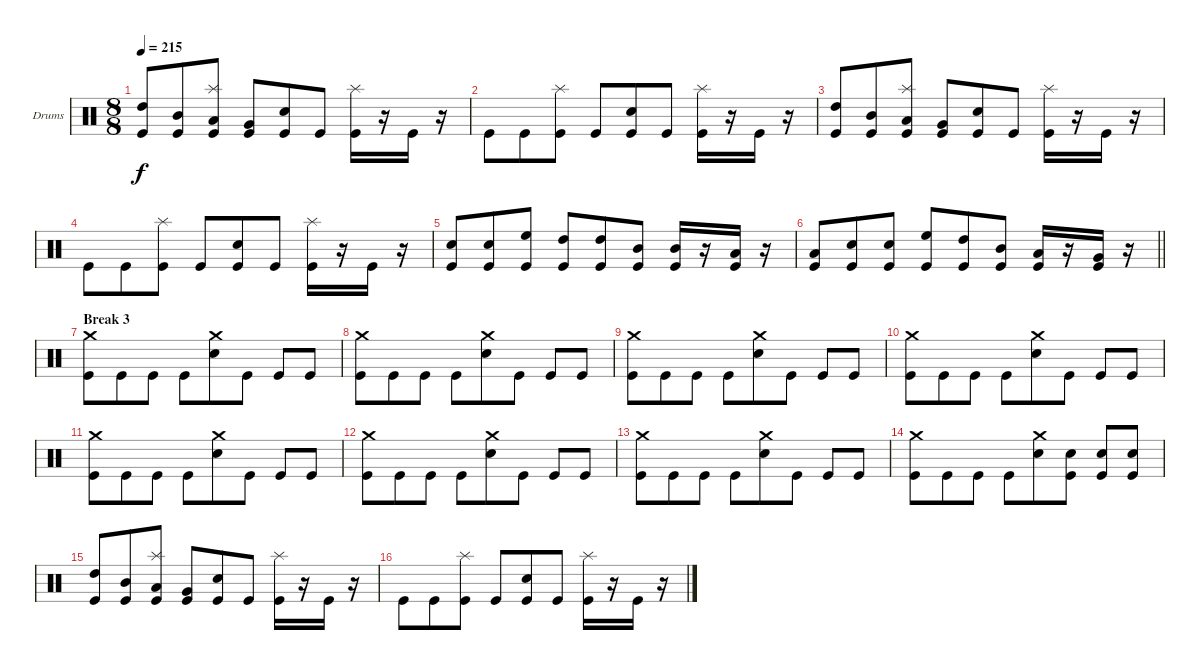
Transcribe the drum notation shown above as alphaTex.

\bracketExtendMode groupsimilarinstruments
\firstSystemTrackNameOrientation horizontal
\otherSystemsTrackNameOrientation horizontal
\track ("Dave McClain" "Drums") {instrument percussion}
\staff {score}
\articulation defaults
\ts (8 8)
\tempo 215
\clef neutral
\ks c
("High Tom (hit)" "Kick (hit)").8{dy f} ("Mid Tom (hit)" "Kick (hit)").8 ("Splash (hit)" "Low Tom (hit)" "Kick (hit)").8 ("Very Low Tom (hit)" "Kick (hit)").8 ("Snare (hit) 2" "Kick (hit)").8 "Kick (hit)".8 ("Splash (hit)" "Kick (hit)").16 r.16 "Kick (hit)".16 r.16 |
"Kick (hit)".8 "Kick (hit)".8 ("Splash (hit)" "Kick (hit)").8 "Kick (hit)".8 ("Snare (hit) 2" "Kick (hit)").8 "Kick (hit)".8 ("Splash (hit)" "Kick (hit)").16 r.16 "Kick (hit)".16 r.16 |
("High Tom (hit)" "Kick (hit)").8 ("Mid Tom (hit)" "Kick (hit)").8 ("Splash (hit)" "Low Tom (hit)" "Kick (hit)").8 ("Very Low Tom (hit)" "Kick (hit)").8 ("Snare (hit) 2" "Kick (hit)").8 "Kick (hit)".8 ("Splash (hit)" "Kick (hit)").16 r.16 "Kick (hit)".16 r.16 |
"Kick (hit)".8 "Kick (hit)".8 ("Splash (hit)" "Kick (hit)").8 "Kick (hit)".8 ("Snare (hit) 2" "Kick (hit)").8 "Kick (hit)".8 ("Splash (hit)" "Kick (hit)").16 r.16 "Kick (hit)".16 r.16 |
("Snare (hit) 2" "Kick (hit)").8 ("Snare (hit) 2" "Kick (hit)").8 ("High Floor Tom (hit)" "Kick (hit)").8 ("High Tom (hit)" "Kick (hit)").8 ("High Tom (hit)" "Kick (hit)").8 ("Mid Tom (hit)" "Kick (hit)").8 ("Mid Tom (hit)" "Kick (hit)").16 r.16 ("Low Tom (hit)" "Kick (hit)").16 r.16 |
\barLineRight lightlight
("Low Tom (hit)" "Kick (hit)").8 ("Snare (hit) 2" "Kick (hit)").8 ("Snare (hit) 2" "Kick (hit)").8 ("High Floor Tom (hit)" "Kick (hit)").8 ("High Tom (hit)" "Kick (hit)").8 ("Mid Tom (hit)" "Kick (hit)").8 ("Low Tom (hit)" "Kick (hit)").16 r.16 ("Very Low Tom (hit)" "Kick (hit)").16 r.16 |
\section ("" "Break 3")
("Crash medium (hit)" "Kick (hit)").8 "Kick (hit)".8 "Kick (hit)".8 "Kick (hit)".8 ("Crash medium (hit)" "Snare (hit) 2").8 "Kick (hit)".8 "Kick (hit)".8 "Kick (hit)".8 |
("Crash medium (hit)" "Kick (hit)").8 "Kick (hit)".8 "Kick (hit)".8 "Kick (hit)".8 ("Crash medium (hit)" "Snare (hit) 2").8 "Kick (hit)".8 "Kick (hit)".8 "Kick (hit)".8 |
("Crash medium (hit)" "Kick (hit)").8 "Kick (hit)".8 "Kick (hit)".8 "Kick (hit)".8 ("Crash medium (hit)" "Snare (hit) 2").8 "Kick (hit)".8 "Kick (hit)".8 "Kick (hit)".8 |
("Crash medium (hit)" "Kick (hit)").8 "Kick (hit)".8 "Kick (hit)".8 "Kick (hit)".8 ("Crash medium (hit)" "Snare (hit) 2").8 "Kick (hit)".8 "Kick (hit)".8 "Kick (hit)".8 |
("Crash medium (hit)" "Kick (hit)").8 "Kick (hit)".8 "Kick (hit)".8 "Kick (hit)".8 ("Crash medium (hit)" "Snare (hit) 2").8 "Kick (hit)".8 "Kick (hit)".8 "Kick (hit)".8 |
("Crash medium (hit)" "Kick (hit)").8 "Kick (hit)".8 "Kick (hit)".8 "Kick (hit)".8 ("Crash medium (hit)" "Snare (hit) 2").8 "Kick (hit)".8 "Kick (hit)".8 "Kick (hit)".8 |
("Crash medium (hit)" "Kick (hit)").8 "Kick (hit)".8 "Kick (hit)".8 "Kick (hit)".8 ("Crash medium (hit)" "Snare (hit) 2").8 "Kick (hit)".8 "Kick (hit)".8 "Kick (hit)".8 |
("Crash medium (hit)" "Kick (hit)").8 "Kick (hit)".8 "Kick (hit)".8 "Kick (hit)".8 ("Crash medium (hit)" "Snare (hit) 2").8 ("Snare (hit) 2" "Kick (hit)").8 ("Snare (hit) 2" "Kick (hit)").8 ("Snare (hit) 2" "Kick (hit)").8 |
("High Tom (hit)" "Kick (hit)").8 ("Mid Tom (hit)" "Kick (hit)").8 ("Splash (hit)" "Low Tom (hit)" "Kick (hit)").8 ("Very Low Tom (hit)" "Kick (hit)").8 ("Snare (hit) 2" "Kick (hit)").8 "Kick (hit)".8 ("Splash (hit)" "Kick (hit)").16 r.16 "Kick (hit)".16 r.16 |
"Kick (hit)".8 "Kick (hit)".8 ("Splash (hit)" "Kick (hit)").8 "Kick (hit)".8 ("Snare (hit) 2" "Kick (hit)").8 "Kick (hit)".8 ("Splash (hit)" "Kick (hit)").16 r.16 "Kick (hit)".16 r.16
